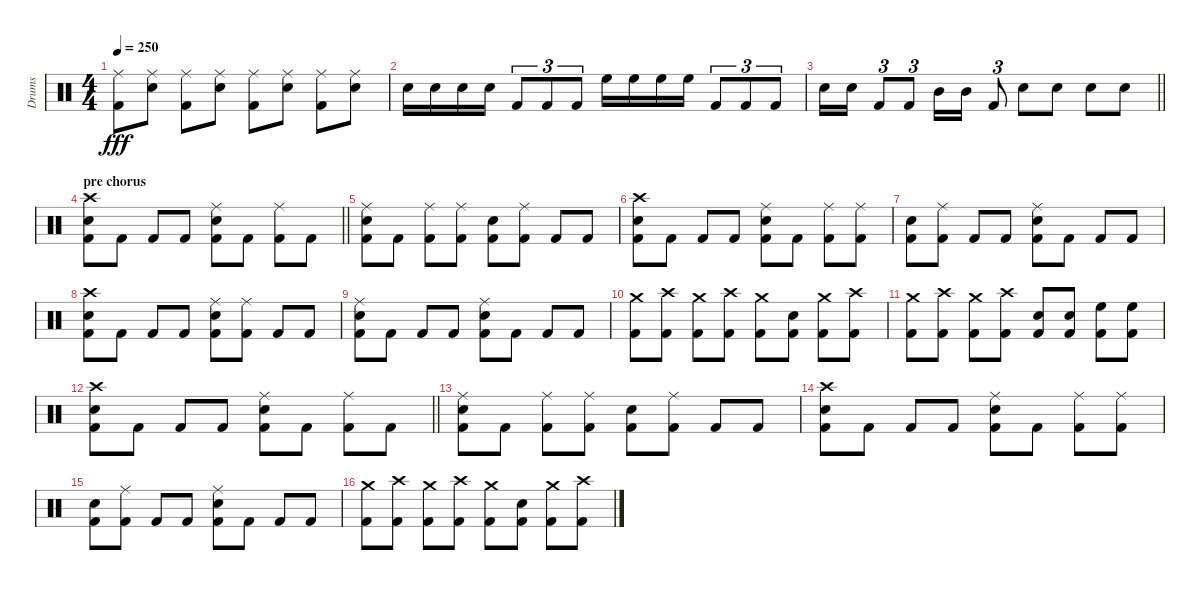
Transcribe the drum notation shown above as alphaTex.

\track ("Drums" "Drums") {solo instrument percussion}
\staff {score}
\articulation defaults
\ts (4 4)
\tempo 250
\clef neutral
\ks c
("Ride (middle)" "Kick (hit) 2").8{dy fff} ("Ride (middle)" "Snare (hit) 2").8 ("Ride (middle)" "Kick (hit) 2").8 ("Ride (middle)" "Snare (hit) 2").8 ("Ride (middle)" "Kick (hit) 2").8 ("Ride (middle)" "Snare (hit) 2").8 ("Ride (middle)" "Kick (hit) 2").8 ("Ride (middle)" "Snare (hit) 2").8 |
"Snare (hit) 2".16 "Snare (hit) 2".16 "Snare (hit) 2".16 "Snare (hit) 2".16 "Kick (hit) 2".8{tu (3 2)} "Kick (hit) 2".8{tu (3 2)} "Kick (hit) 2".8{tu (3 2)} "High Floor Tom (hit)".16 "High Floor Tom (hit)".16 "High Floor Tom (hit)".16 "High Floor Tom (hit)".16 "Kick (hit) 2".8{tu (3 2)} "Kick (hit) 2".8{tu (3 2)} "Kick (hit) 2".8{tu (3 2)} |
\barLineRight lightlight "Snare (hit) 2".16 "Snare (hit) 2".16 "Kick (hit) 2".8{tu (3 2)} "Kick (hit) 2".8{tu (3 2)} "Mid Tom (hit)".16 "Mid Tom (hit)".16 "Kick (hit) 2".8{tu (3 2)} "Snare (hit) 2".8 "Snare (hit) 2".8 "Snare (hit) 2".8 "Snare (hit) 2".8
|
\section ("" "pre chorus")
\barLineRight lightlight
("Crash high (hit)" "Snare (hit) 2" "Kick (hit) 2").8 "Kick (hit) 2".8 "Kick (hit) 2".8 "Kick (hit) 2".8 ("Ride (middle)" "Snare (hit) 2" "Kick (hit) 2").8 "Kick (hit) 2".8 ("Ride (middle)" "Kick (hit) 2").8 "Kick (hit) 2".8 |
("Ride (middle)" "Snare (hit) 2" "Kick (hit) 2").8 "Kick (hit) 2".8 ("Ride (middle)" "Kick (hit) 2").8 ("Ride (middle)" "Kick (hit) 2").8 ("Snare (hit) 2" "Kick (hit) 2").8 ("Ride (middle)" "Kick (hit) 2").8 "Kick (hit) 2".8 "Kick (hit) 2".8 |
("Crash high (hit)" "Snare (hit) 2" "Kick (hit) 2").8 "Kick (hit) 2".8 "Kick (hit) 2".8 "Kick (hit) 2".8 ("Ride (middle)" "Snare (hit) 2" "Kick (hit) 2").8 "Kick (hit) 2".8 ("Ride (middle)" "Kick (hit) 2").8 ("Ride (middle)" "Kick (hit) 2").8 |
("Snare (hit) 2" "Kick (hit) 2").8 ("Ride (middle)" "Kick (hit) 2").8 "Kick (hit) 2".8 "Kick (hit) 2".8 ("Ride (middle)" "Snare (hit) 2" "Kick (hit) 2").8 "Kick (hit) 2".8 "Kick (hit) 2".8 "Kick (hit) 2".8 |
("Crash high (hit)" "Snare (hit) 2" "Kick (hit) 2").8 "Kick (hit) 2".8 "Kick (hit) 2".8 "Kick (hit) 2".8 ("Ride (middle)" "Snare (hit) 2" "Kick (hit) 2").8 ("Ride (middle)" "Kick (hit) 2").8 "Kick (hit) 2".8 "Kick (hit) 2".8 |
("Ride (middle)" "Snare (hit) 2" "Kick (hit) 2").8 "Kick (hit) 2".8 "Kick (hit) 2".8 "Kick (hit) 2".8 ("Ride (middle)" "Snare (hit) 2" "Kick (hit) 2").8 "Kick (hit) 2".8 "Kick (hit) 2".8 "Kick (hit) 2".8 |
("Crash medium (hit)" "Kick (hit) 2").8 ("Crash high (hit)" "Kick (hit) 2").8 ("Crash medium (hit)" "Kick (hit) 2").8 ("Crash high (hit)" "Kick (hit) 2").8 ("Crash medium (hit)" "Kick (hit) 2").8 ("Snare (hit) 2" "Kick (hit) 2").8 ("Crash medium (hit)" "Kick (hit) 2").8 ("Crash high (hit)" "Kick (hit) 2").8 |
("Crash medium (hit)" "Kick (hit) 2").8 ("Crash high (hit)" "Kick (hit) 2").8 ("Crash medium (hit)" "Kick (hit) 2").8 ("Crash high (hit)" "Kick (hit) 2").8 ("Snare (hit) 2" "Kick (hit) 2").8 ("Snare (hit) 2" "Kick (hit) 2").8 ("High Floor Tom (hit)" "Kick (hit) 2").8 ("High Floor Tom (hit)" "Kick (hit) 2").8 |
\barLineRight lightlight
("Crash high (hit)" "Snare (hit) 2" "Kick (hit) 2").8 "Kick (hit) 2".8 "Kick (hit) 2".8 "Kick (hit) 2".8 ("Ride (middle)" "Snare (hit) 2" "Kick (hit) 2").8 "Kick (hit) 2".8 ("Ride (middle)" "Kick (hit) 2").8 "Kick (hit) 2".8 |
("Ride (middle)" "Snare (hit) 2" "Kick (hit) 2").8 "Kick (hit) 2".8 ("Ride (middle)" "Kick (hit) 2").8 ("Ride (middle)" "Kick (hit) 2").8 ("Snare (hit) 2" "Kick (hit) 2").8 ("Ride (middle)" "Kick (hit) 2").8 "Kick (hit) 2".8 "Kick (hit) 2".8 |
("Crash high (hit)" "Snare (hit) 2" "Kick (hit) 2").8 "Kick (hit) 2".8 "Kick (hit) 2".8 "Kick (hit) 2".8 ("Ride (middle)" "Snare (hit) 2" "Kick (hit) 2").8 "Kick (hit) 2".8 ("Ride (middle)" "Kick (hit) 2").8 ("Ride (middle)" "Kick (hit) 2").8 |
("Snare (hit) 2" "Kick (hit) 2").8 ("Ride (middle)" "Kick (hit) 2").8 "Kick (hit) 2".8 "Kick (hit) 2".8 ("Ride (middle)" "Snare (hit) 2" "Kick (hit) 2").8 "Kick (hit) 2".8 "Kick (hit) 2".8 "Kick (hit) 2".8 |
("Crash medium (hit)" "Kick (hit) 2").8 ("Crash high (hit)" "Kick (hit) 2").8 ("Crash medium (hit)" "Kick (hit) 2").8 ("Crash high (hit)" "Kick (hit) 2").8 ("Crash medium (hit)" "Kick (hit) 2").8 ("Snare (hit) 2" "Kick (hit) 2").8 ("Crash medium (hit)" "Kick (hit) 2").8 ("Crash high (hit)" "Kick (hit) 2").8
